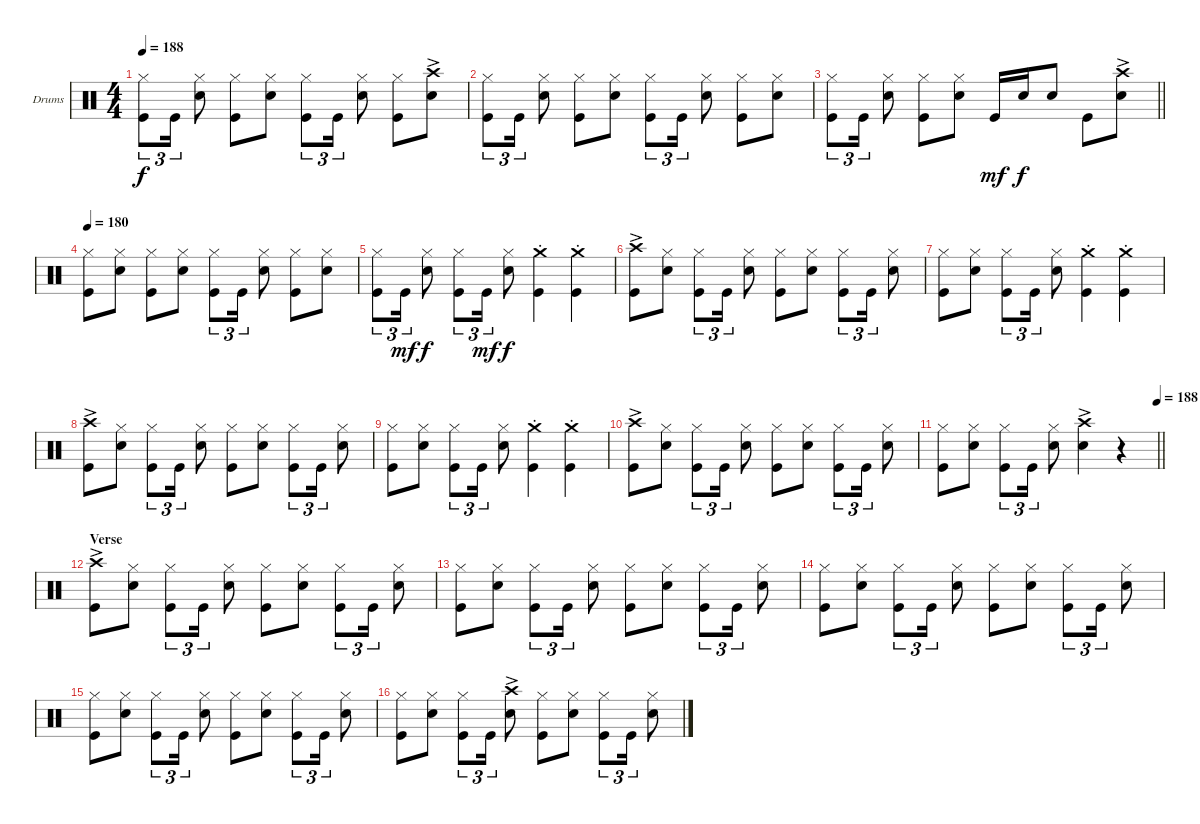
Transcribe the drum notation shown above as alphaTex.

\bracketExtendMode groupsimilarinstruments
\firstSystemTrackNameOrientation horizontal
\otherSystemsTrackNameOrientation horizontal
\track ("Drums" "Drums") {instrument percussion}
\staff {score}
\articulation defaults
\ts (4 4)
\tempo 188
\clef neutral
\ks c
("Kick (hit)" "Hi-Hat (closed)").8{tu (3 2) dy f} "Kick (hit)".16{tu (3 2)} ("Snare (hit) 2" "Hi-Hat (closed)").8 ("Kick (hit)" "Hi-Hat (closed)").8 ("Snare (hit) 2" "Hi-Hat (closed)").8 ("Kick (hit)" "Hi-Hat (closed)").8{tu (3 2)} "Kick (hit)".16{tu (3 2)} ("Snare (hit) 2" "Hi-Hat (closed)").8 ("Kick (hit)" "Hi-Hat (closed)").8 ("Snare (hit) 2"{ac} "Crash high (hit)"{ac}).8 |
("Kick (hit)" "Hi-Hat (closed)").8{tu (3 2)} "Kick (hit)".16{tu (3 2)} ("Snare (hit) 2" "Hi-Hat (closed)").8 ("Kick (hit)" "Hi-Hat (closed)").8 ("Snare (hit) 2" "Hi-Hat (closed)").8 ("Kick (hit)" "Hi-Hat (closed)").8{tu (3 2)} "Kick (hit)".16{tu (3 2)} ("Snare (hit) 2" "Hi-Hat (closed)").8 ("Kick (hit)" "Hi-Hat (closed)").8 ("Snare (hit) 2" "Hi-Hat (closed)").8 |
\barLineRight lightlight
("Kick (hit)" "Hi-Hat (closed)").8{tu (3 2)} "Kick (hit)".16{tu (3 2)} ("Snare (hit) 2" "Hi-Hat (closed)").8 ("Kick (hit)" "Hi-Hat (closed)").8 ("Snare (hit) 2" "Hi-Hat (closed)").8 "Kick (hit)".16{dy mf} "Snare (hit) 2".16{dy f} "Snare (hit) 2".8 "Kick (hit)".8 ("Snare (hit) 2"{ac} "Crash high (hit)"{ac}).8 |
\tempo 180
("Kick (hit)" "Hi-Hat (closed)").8 ("Snare (hit) 2" "Hi-Hat (closed)").8 ("Kick (hit)" "Hi-Hat (closed)").8 ("Snare (hit) 2" "Hi-Hat (closed)").8 ("Kick (hit)" "Hi-Hat (closed)").8{tu (3 2)} "Kick (hit)".16{tu (3 2)} ("Snare (hit) 2" "Hi-Hat (closed)").8 ("Kick (hit)" "Hi-Hat (closed)").8 ("Snare (hit) 2" "Hi-Hat (closed)").8 |
("Kick (hit)" "Hi-Hat (closed)").8{tu (3 2)} "Kick (hit)".16{tu (3 2) dy mf} ("Snare (hit) 2" "Hi-Hat (closed)").8{dy f} ("Kick (hit)" "Hi-Hat (closed)").8{tu (3 2)} "Kick (hit)".16{tu (3 2) dy mf} ("Snare (hit) 2" "Hi-Hat (closed)").8{dy f} ("Kick (hit)"{st} "Crash medium (hit)"{st}).4 ("Kick (hit)"{st} "Crash medium (hit)"{st}).4 |
("Kick (hit)" "Crash high (hit)"{ac}).8 ("Snare (hit) 2" "Hi-Hat (closed)").8 ("Kick (hit)" "Hi-Hat (closed)").8{tu (3 2)} "Kick (hit)".16{tu (3 2)} ("Snare (hit) 2" "Hi-Hat (closed)").8 ("Kick (hit)" "Hi-Hat (closed)").8 ("Snare (hit) 2" "Hi-Hat (closed)").8 ("Kick (hit)" "Hi-Hat (closed)").8{tu (3 2)} "Kick (hit)".16{tu (3 2)} ("Snare (hit) 2" "Hi-Hat (closed)").8 |
("Kick (hit)" "Hi-Hat (closed)").8 ("Snare (hit) 2" "Hi-Hat (closed)").8 ("Kick (hit)" "Hi-Hat (closed)").8{tu (3 2)} "Kick (hit)".16{tu (3 2)} ("Snare (hit) 2" "Hi-Hat (closed)").8 ("Kick (hit)"{st} "Crash medium (hit)"{st}).4 ("Kick (hit)"{st} "Crash medium (hit)"{st}).4 |
("Kick (hit)" "Crash high (hit)"{ac}).8 ("Snare (hit) 2" "Hi-Hat (closed)").8 ("Kick (hit)" "Hi-Hat (closed)").8{tu (3 2)} "Kick (hit)".16{tu (3 2)} ("Snare (hit) 2" "Hi-Hat (closed)").8 ("Kick (hit)" "Hi-Hat (closed)").8 ("Snare (hit) 2" "Hi-Hat (closed)").8 ("Kick (hit)" "Hi-Hat (closed)").8{tu (3 2)} "Kick (hit)".16{tu (3 2)} ("Snare (hit) 2" "Hi-Hat (closed)").8 |
("Kick (hit)" "Hi-Hat (closed)").8 ("Snare (hit) 2" "Hi-Hat (closed)").8 ("Kick (hit)" "Hi-Hat (closed)").8{tu (3 2)} "Kick (hit)".16{tu (3 2)} ("Snare (hit) 2" "Hi-Hat (closed)").8 ("Kick (hit)"{st} "Crash medium (hit)"{st}).4 ("Kick (hit)"{st} "Crash medium (hit)"{st}).4 |
("Kick (hit)" "Crash high (hit)"{ac}).8 ("Snare (hit) 2" "Hi-Hat (closed)").8 ("Kick (hit)" "Hi-Hat (closed)").8{tu (3 2)} "Kick (hit)".16{tu (3 2)} ("Snare (hit) 2" "Hi-Hat (closed)").8 ("Kick (hit)" "Hi-Hat (closed)").8 ("Snare (hit) 2" "Hi-Hat (closed)").8 ("Kick (hit)" "Hi-Hat (closed)").8{tu (3 2)} "Kick (hit)".16{tu (3 2)} ("Snare (hit) 2" "Hi-Hat (closed)").8 |
\tempo (188 1)
\barLineRight lightlight
("Kick (hit)" "Hi-Hat (closed)").8 ("Snare (hit) 2" "Hi-Hat (closed)").8 ("Kick (hit)" "Hi-Hat (closed)").8{tu (3 2)} "Kick (hit)".16{tu (3 2)} ("Snare (hit) 2" "Hi-Hat (closed)").8 ("Snare (hit) 2"{ac} "Crash high (hit)"{ac}).4 r.4 |
\section ("" "Verse")
("Kick (hit)" "Crash high (hit)"{ac}).8 ("Snare (hit) 2" "Hi-Hat (closed)").8 ("Kick (hit)" "Hi-Hat (closed)").8{tu (3 2)} "Kick (hit)".16{tu (3 2)} ("Snare (hit) 2" "Hi-Hat (closed)").8 ("Kick (hit)" "Hi-Hat (closed)").8 ("Snare (hit) 2" "Hi-Hat (closed)").8 ("Kick (hit)" "Hi-Hat (closed)").8{tu (3 2)} "Kick (hit)".16{tu (3 2)} ("Snare (hit) 2" "Hi-Hat (closed)").8 |
("Kick (hit)" "Hi-Hat (closed)").8 ("Snare (hit) 2" "Hi-Hat (closed)").8 ("Kick (hit)" "Hi-Hat (closed)").8{tu (3 2)} "Kick (hit)".16{tu (3 2)} ("Snare (hit) 2" "Hi-Hat (closed)").8 ("Kick (hit)" "Hi-Hat (closed)").8 ("Snare (hit) 2" "Hi-Hat (closed)").8 ("Kick (hit)" "Hi-Hat (closed)").8{tu (3 2)} "Kick (hit)".16{tu (3 2)} ("Snare (hit) 2" "Hi-Hat (closed)").8 |
("Kick (hit)" "Hi-Hat (closed)").8 ("Snare (hit) 2" "Hi-Hat (closed)").8 ("Kick (hit)" "Hi-Hat (closed)").8{tu (3 2)} "Kick (hit)".16{tu (3 2)} ("Snare (hit) 2" "Hi-Hat (closed)").8 ("Kick (hit)" "Hi-Hat (closed)").8 ("Snare (hit) 2" "Hi-Hat (closed)").8 ("Kick (hit)" "Hi-Hat (closed)").8{tu (3 2)} "Kick (hit)".16{tu (3 2)} ("Snare (hit) 2" "Hi-Hat (closed)").8 |
("Kick (hit)" "Hi-Hat (closed)").8 ("Snare (hit) 2" "Hi-Hat (closed)").8 ("Kick (hit)" "Hi-Hat (closed)").8{tu (3 2)} "Kick (hit)".16{tu (3 2)} ("Snare (hit) 2" "Hi-Hat (closed)").8 ("Kick (hit)" "Hi-Hat (closed)").8 ("Snare (hit) 2" "Hi-Hat (closed)").8 ("Kick (hit)" "Hi-Hat (closed)").8{tu (3 2)} "Kick (hit)".16{tu (3 2)} ("Snare (hit) 2" "Hi-Hat (closed)").8 |
("Kick (hit)" "Hi-Hat (closed)").8 ("Snare (hit) 2" "Hi-Hat (closed)").8 ("Kick (hit)" "Hi-Hat (closed)").8{tu (3 2)} "Kick (hit)".16{tu (3 2)} ("Snare (hit) 2"{ac} "Crash high (hit)"{ac}).8 ("Kick (hit)" "Hi-Hat (closed)").8 ("Snare (hit) 2" "Hi-Hat (closed)").8 ("Kick (hit)" "Hi-Hat (closed)").8{tu (3 2)} "Kick (hit)".16{tu (3 2)} ("Snare (hit) 2" "Hi-Hat (closed)").8
